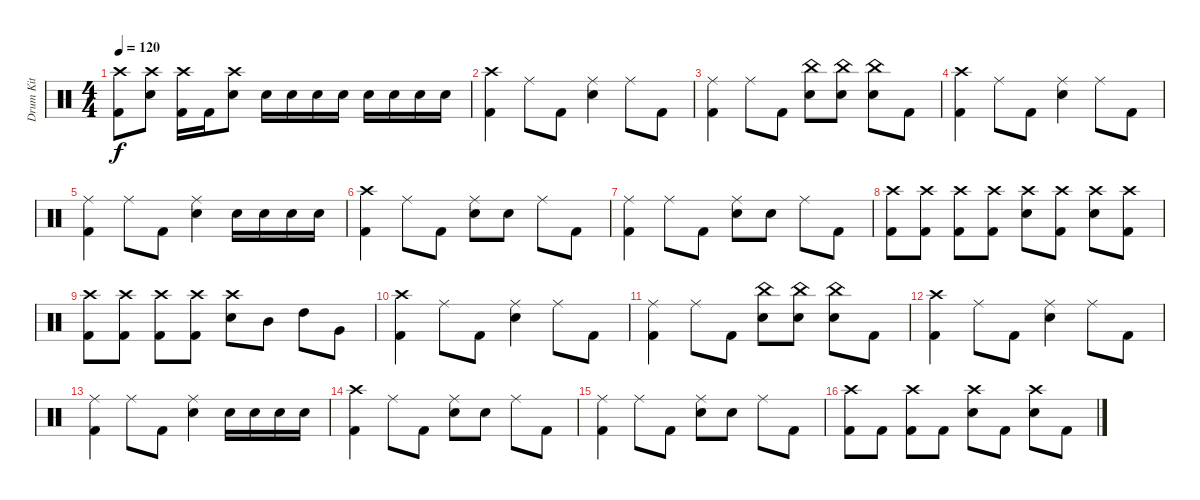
\track ("Drum Kit" "Drum Kit") {instrument percussion}
\staff {score}
\articulation defaults
\ts (4 4)
\tempo 120
\clef neutral
\ks c
("Crash high (hit)" "Kick (hit) 2").8{dy f} ("Crash high (hit)" "Snare (hit) 2").8 ("Crash high (hit)" "Kick (hit) 2").16 "Kick (hit) 2".16 ("Crash high (hit)" "Snare (hit) 2").8 "Snare (hit) 2".16 "Snare (hit) 2".16 "Snare (hit) 2".16 "Snare (hit) 2".16 "Snare (hit) 2".16 "Snare (hit) 2".16 "Snare (hit) 2".16 "Snare (hit) 2".16 |
("Crash high (hit)" "Kick (hit) 2").4 "Ride (middle)".8 "Kick (hit) 2".8 ("Ride (middle)" "Snare (hit) 2").4 "Ride (middle)".8 "Kick (hit) 2".8 |
("Ride (middle)" "Kick (hit) 2").4 "Ride (middle)".8 "Kick (hit) 2".8 ("China (hit)" "Snare (hit) 2").8 ("China (hit)" "Snare (hit) 2").8 ("China (hit)" "Snare (hit) 2").8 "Kick (hit) 2".8 |
("Crash high (hit)" "Kick (hit) 2").4 "Ride (middle)".8 "Kick (hit) 2".8 ("Ride (middle)" "Snare (hit) 2").4 "Ride (middle)".8 "Kick (hit) 2".8 |
("Ride (middle)" "Kick (hit) 2").4 "Ride (middle)".8 "Kick (hit) 2".8 ("Ride (middle)" "Snare (hit) 2").4 "Snare (hit) 2".16 "Snare (hit) 2".16 "Snare (hit) 2".16 "Snare (hit) 2".16 |
("Crash high (hit)" "Kick (hit) 2").4 "Ride (middle)".8 "Kick (hit) 2".8 ("Ride (middle)" "Snare (hit) 2").8 "Snare (hit) 2".8 "Ride (middle)".8 "Kick (hit) 2".8 |
("Ride (middle)" "Kick (hit) 2").4 "Ride (middle)".8 "Kick (hit) 2".8 ("Ride (middle)" "Snare (hit) 2").8 "Snare (hit) 2".8 "Ride (middle)".8 "Kick (hit) 2".8 |
("Crash high (hit)" "Kick (hit) 2").8 ("Crash high (hit)" "Kick (hit) 2").8 ("Crash high (hit)" "Kick (hit) 2").8 ("Crash high (hit)" "Kick (hit) 2").8 ("Crash high (hit)" "Snare (hit) 2").8 ("Crash high (hit)" "Kick (hit) 2").8 ("Crash high (hit)" "Snare (hit) 2").8 ("Crash high (hit)" "Kick (hit) 2").8 |
("Crash high (hit)" "Kick (hit) 2").8 ("Crash high (hit)" "Kick (hit) 2").8 ("Crash high (hit)" "Kick (hit) 2").8 ("Crash high (hit)" "Kick (hit) 2").8 ("Crash high (hit)" "Snare (hit) 2").8 "Mid Tom (hit)".8 "High Tom (hit)".8 "Very Low Tom (hit)".8 |
("Crash high (hit)" "Kick (hit) 2").4 "Ride (middle)".8 "Kick (hit) 2".8 ("Ride (middle)" "Snare (hit) 2").4 "Ride (middle)".8 "Kick (hit) 2".8 |
("Ride (middle)" "Kick (hit) 2").4 "Ride (middle)".8 "Kick (hit) 2".8 ("China (hit)" "Snare (hit) 2").8 ("China (hit)" "Snare (hit) 2").8 ("China (hit)" "Snare (hit) 2").8 "Kick (hit) 2".8 |
("Crash high (hit)" "Kick (hit) 2").4 "Ride (middle)".8 "Kick (hit) 2".8 ("Ride (middle)" "Snare (hit) 2").4 "Ride (middle)".8 "Kick (hit) 2".8 |
("Ride (middle)" "Kick (hit) 2").4 "Ride (middle)".8 "Kick (hit) 2".8 ("Ride (middle)" "Snare (hit) 2").4 "Snare (hit) 2".16 "Snare (hit) 2".16 "Snare (hit) 2".16 "Snare (hit) 2".16 |
("Crash high (hit)" "Kick (hit) 2").4 "Ride (middle)".8 "Kick (hit) 2".8 ("Ride (middle)" "Snare (hit) 2").8 "Snare (hit) 2".8 "Ride (middle)".8 "Kick (hit) 2".8 |
("Ride (middle)" "Kick (hit) 2").4 "Ride (middle)".8 "Kick (hit) 2".8 ("Ride (middle)" "Snare (hit) 2").8 "Snare (hit) 2".8 "Ride (middle)".8 "Kick (hit) 2".8 |
("Crash high (hit)" "Kick (hit) 2").8 "Kick (hit) 2".8 ("Crash high (hit)" "Kick (hit) 2").8 "Kick (hit) 2".8 ("Crash high (hit)" "Snare (hit) 2").8 "Kick (hit) 2".8 ("Crash high (hit)" "Snare (hit) 2").8 "Kick (hit) 2".8
